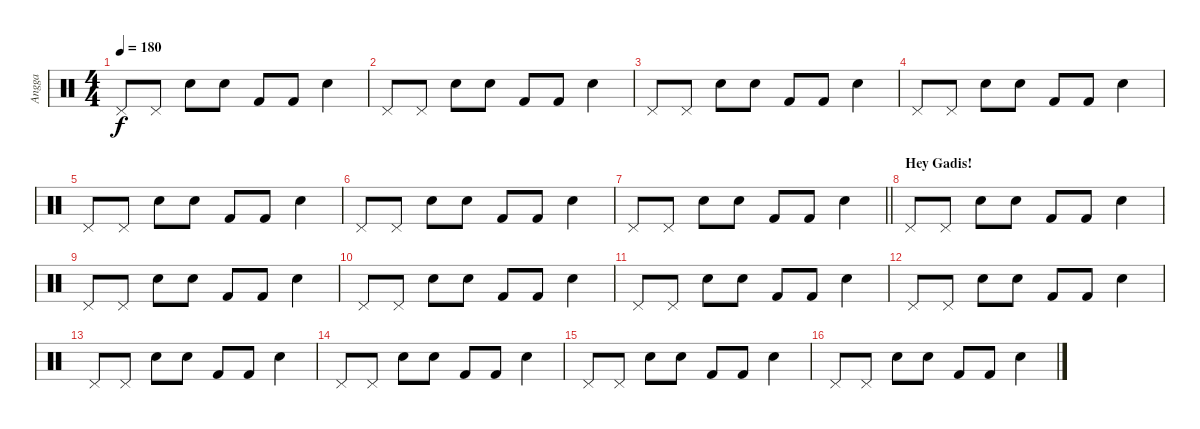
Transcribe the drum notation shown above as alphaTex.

\track ("Angga" "Angga") {instrument percussion}
\staff {score}
\articulation defaults
\ts (4 4)
\tempo 180
\clef neutral
\ks c "Pedal Hi-Hat (hit)".8{dy f} "Pedal Hi-Hat (hit)".8 "Snare (hit) 2".8 "Snare (hit) 2".8 "Kick (hit) 2".8 "Kick (hit) 2".8 "Snare (hit) 2".4
|
"Pedal Hi-Hat (hit)".8 "Pedal Hi-Hat (hit)".8 "Snare (hit) 2".8 "Snare (hit) 2".8 "Kick (hit) 2".8 "Kick (hit) 2".8 "Snare (hit) 2".4 |
"Pedal Hi-Hat (hit)".8 "Pedal Hi-Hat (hit)".8 "Snare (hit) 2".8 "Snare (hit) 2".8 "Kick (hit) 2".8 "Kick (hit) 2".8 "Snare (hit) 2".4 |
"Pedal Hi-Hat (hit)".8 "Pedal Hi-Hat (hit)".8 "Snare (hit) 2".8 "Snare (hit) 2".8 "Kick (hit) 2".8 "Kick (hit) 2".8 "Snare (hit) 2".4 |
"Pedal Hi-Hat (hit)".8 "Pedal Hi-Hat (hit)".8 "Snare (hit) 2".8 "Snare (hit) 2".8 "Kick (hit) 2".8 "Kick (hit) 2".8 "Snare (hit) 2".4 |
"Pedal Hi-Hat (hit)".8 "Pedal Hi-Hat (hit)".8 "Snare (hit) 2".8 "Snare (hit) 2".8 "Kick (hit) 2".8 "Kick (hit) 2".8 "Snare (hit) 2".4 |
\barLineRight lightlight "Pedal Hi-Hat (hit)".8 "Pedal Hi-Hat (hit)".8 "Snare (hit) 2".8 "Snare (hit) 2".8 "Kick (hit) 2".8 "Kick (hit) 2".8 "Snare (hit) 2".4
|
\section ("" "Hey Gadis!")
"Pedal Hi-Hat (hit)".8 "Pedal Hi-Hat (hit)".8 "Snare (hit) 2".8 "Snare (hit) 2".8 "Kick (hit) 2".8 "Kick (hit) 2".8 "Snare (hit) 2".4 |
"Pedal Hi-Hat (hit)".8 "Pedal Hi-Hat (hit)".8 "Snare (hit) 2".8 "Snare (hit) 2".8 "Kick (hit) 2".8 "Kick (hit) 2".8 "Snare (hit) 2".4 |
"Pedal Hi-Hat (hit)".8 "Pedal Hi-Hat (hit)".8 "Snare (hit) 2".8 "Snare (hit) 2".8 "Kick (hit) 2".8 "Kick (hit) 2".8 "Snare (hit) 2".4 |
"Pedal Hi-Hat (hit)".8 "Pedal Hi-Hat (hit)".8 "Snare (hit) 2".8 "Snare (hit) 2".8 "Kick (hit) 2".8 "Kick (hit) 2".8 "Snare (hit) 2".4 |
"Pedal Hi-Hat (hit)".8 "Pedal Hi-Hat (hit)".8 "Snare (hit) 2".8 "Snare (hit) 2".8 "Kick (hit) 2".8 "Kick (hit) 2".8 "Snare (hit) 2".4 |
"Pedal Hi-Hat (hit)".8 "Pedal Hi-Hat (hit)".8 "Snare (hit) 2".8 "Snare (hit) 2".8 "Kick (hit) 2".8 "Kick (hit) 2".8 "Snare (hit) 2".4 |
"Pedal Hi-Hat (hit)".8 "Pedal Hi-Hat (hit)".8 "Snare (hit) 2".8 "Snare (hit) 2".8 "Kick (hit) 2".8 "Kick (hit) 2".8 "Snare (hit) 2".4 |
"Pedal Hi-Hat (hit)".8 "Pedal Hi-Hat (hit)".8 "Snare (hit) 2".8 "Snare (hit) 2".8 "Kick (hit) 2".8 "Kick (hit) 2".8 "Snare (hit) 2".4 |
"Pedal Hi-Hat (hit)".8 "Pedal Hi-Hat (hit)".8 "Snare (hit) 2".8 "Snare (hit) 2".8 "Kick (hit) 2".8 "Kick (hit) 2".8 "Snare (hit) 2".4
